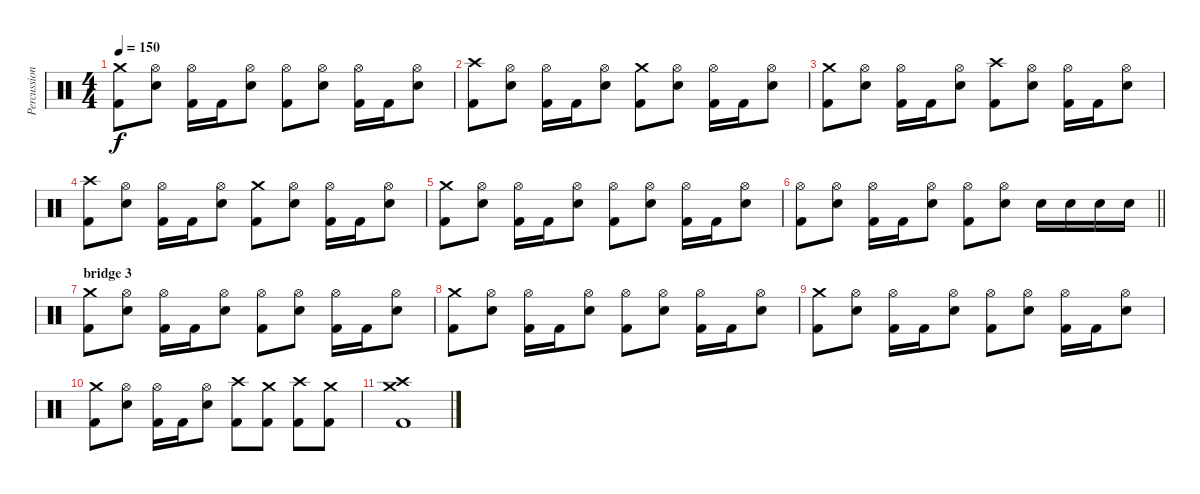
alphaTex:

\track ("Percussion" "Percussion") {instrument percussion}
\staff {score}
\articulation defaults
\ts (4 4)
\tempo 150
\clef neutral
\ks c
("Kick (hit) 2" "Crash medium (hit)").8{dy f} ("Snare (hit) 2" "Hi-Hat (open)").8 ("Kick (hit) 2" "Hi-Hat (open)").16 "Kick (hit) 2".16 ("Snare (hit) 2" "Hi-Hat (open)").8 ("Kick (hit) 2" "Hi-Hat (open)").8 ("Snare (hit) 2" "Hi-Hat (open)").8 ("Kick (hit) 2" "Hi-Hat (open)").16 "Kick (hit) 2".16 ("Snare (hit) 2" "Hi-Hat (open)").8 |
("Kick (hit) 2" "Crash high (hit)").8 ("Snare (hit) 2" "Hi-Hat (open)").8 ("Kick (hit) 2" "Hi-Hat (open)").16 "Kick (hit) 2".16 ("Snare (hit) 2" "Hi-Hat (open)").8 ("Kick (hit) 2" "Crash medium (hit)").8 ("Snare (hit) 2" "Hi-Hat (open)").8 ("Kick (hit) 2" "Hi-Hat (open)").16 "Kick (hit) 2".16 ("Snare (hit) 2" "Hi-Hat (open)").8 |
("Kick (hit) 2" "Crash medium (hit)").8 ("Snare (hit) 2" "Hi-Hat (open)").8 ("Kick (hit) 2" "Hi-Hat (open)").16 "Kick (hit) 2".16 ("Snare (hit) 2" "Hi-Hat (open)").8 ("Kick (hit) 2" "Crash high (hit)").8 ("Snare (hit) 2" "Hi-Hat (open)").8 ("Kick (hit) 2" "Hi-Hat (open)").16 "Kick (hit) 2".16 ("Snare (hit) 2" "Hi-Hat (open)").8 |
("Kick (hit) 2" "Crash high (hit)").8 ("Snare (hit) 2" "Hi-Hat (open)").8 ("Kick (hit) 2" "Hi-Hat (open)").16 "Kick (hit) 2".16 ("Snare (hit) 2" "Hi-Hat (open)").8 ("Kick (hit) 2" "Crash medium (hit)").8 ("Snare (hit) 2" "Hi-Hat (open)").8 ("Kick (hit) 2" "Hi-Hat (open)").16 "Kick (hit) 2".16 ("Snare (hit) 2" "Hi-Hat (open)").8 |
("Kick (hit) 2" "Crash medium (hit)").8 ("Snare (hit) 2" "Hi-Hat (open)").8 ("Kick (hit) 2" "Hi-Hat (open)").16 "Kick (hit) 2".16 ("Snare (hit) 2" "Hi-Hat (open)").8 ("Kick (hit) 2" "Hi-Hat (open)").8 ("Snare (hit) 2" "Hi-Hat (open)").8 ("Kick (hit) 2" "Hi-Hat (open)").16 "Kick (hit) 2".16 ("Snare (hit) 2" "Hi-Hat (open)").8 |
\barLineRight lightlight
("Kick (hit) 2" "Hi-Hat (open)").8 ("Snare (hit) 2" "Hi-Hat (open)").8 ("Kick (hit) 2" "Hi-Hat (open)").16 "Kick (hit) 2".16 ("Snare (hit) 2" "Hi-Hat (open)").8 ("Kick (hit) 2" "Hi-Hat (open)").8 ("Snare (hit) 2" "Hi-Hat (open)").8 "Snare (hit) 2".16 "Snare (hit) 2".16 "Snare (hit) 2".16 "Snare (hit) 2".16 |
\section ("" "bridge 3")
("Kick (hit) 2" "Crash medium (hit)").8 ("Snare (hit) 2" "Hi-Hat (open)").8 ("Kick (hit) 2" "Hi-Hat (open)").16 "Kick (hit) 2".16 ("Snare (hit) 2" "Hi-Hat (open)").8 ("Kick (hit) 2" "Hi-Hat (open)").8 ("Snare (hit) 2" "Hi-Hat (open)").8 ("Kick (hit) 2" "Hi-Hat (open)").16 "Kick (hit) 2".16 ("Snare (hit) 2" "Hi-Hat (open)").8 |
("Kick (hit) 2" "Crash medium (hit)").8 ("Snare (hit) 2" "Hi-Hat (open)").8 ("Kick (hit) 2" "Hi-Hat (open)").16 "Kick (hit) 2".16 ("Snare (hit) 2" "Hi-Hat (open)").8 ("Kick (hit) 2" "Hi-Hat (open)").8 ("Snare (hit) 2" "Hi-Hat (open)").8 ("Kick (hit) 2" "Hi-Hat (open)").16 "Kick (hit) 2".16 ("Snare (hit) 2" "Hi-Hat (open)").8 |
("Kick (hit) 2" "Crash medium (hit)").8 ("Snare (hit) 2" "Hi-Hat (open)").8 ("Kick (hit) 2" "Hi-Hat (open)").16 "Kick (hit) 2".16 ("Snare (hit) 2" "Hi-Hat (open)").8 ("Kick (hit) 2" "Hi-Hat (open)").8 ("Snare (hit) 2" "Hi-Hat (open)").8 ("Kick (hit) 2" "Hi-Hat (open)").16 "Kick (hit) 2".16 ("Snare (hit) 2" "Hi-Hat (open)").8 |
("Kick (hit) 2" "Crash medium (hit)").8 ("Snare (hit) 2" "Hi-Hat (open)").8 ("Kick (hit) 2" "Hi-Hat (open)").16 "Kick (hit) 2".16 ("Snare (hit) 2" "Hi-Hat (open)").8 ("Kick (hit) 2" "Crash high (hit)").8 ("Kick (hit) 2" "Crash medium (hit)").8 ("Kick (hit) 2" "Crash high (hit)").8 ("Kick (hit) 2" "Crash medium (hit)").8 |
("Kick (hit) 2" "Crash medium (hit)" "Crash high (hit)").1
